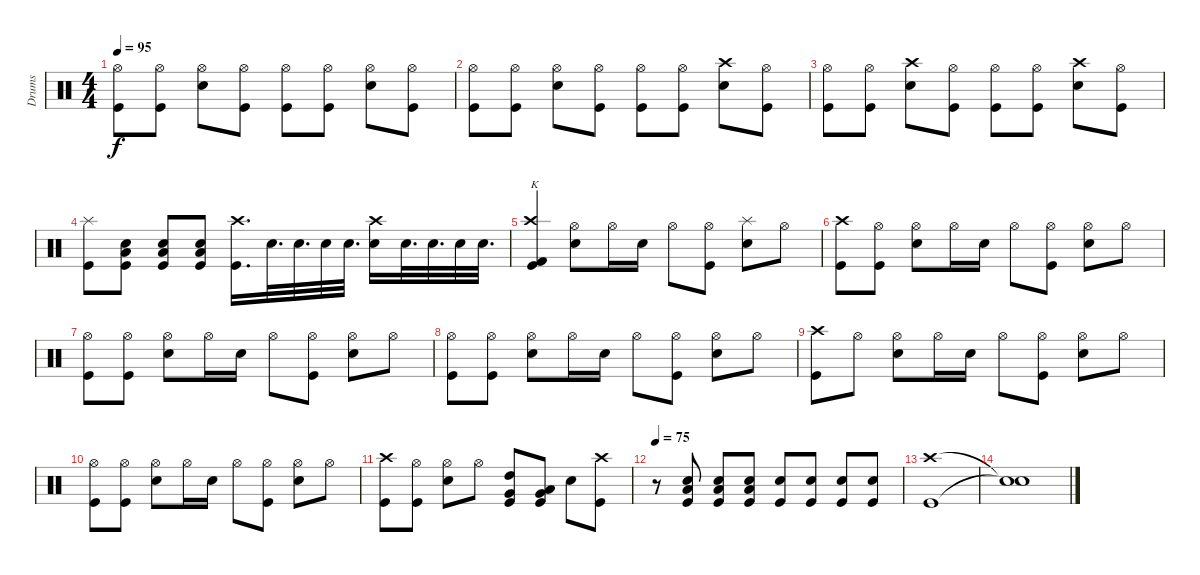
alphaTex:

\track ("Drums" "Drums") {instrument percussion}
\staff {score}
\articulation defaults
\ts (4 4)
\tempo 95
\clef neutral
\ks c
("Hi-Hat (open)" "Kick (hit)").8{dy f} ("Hi-Hat (open)" "Kick (hit)").8 ("Hi-Hat (open)" "Electric Snare (hit)").8 ("Hi-Hat (open)" "Kick (hit)").8 ("Hi-Hat (open)" "Kick (hit)").8 ("Hi-Hat (open)" "Kick (hit)").8 ("Hi-Hat (open)" "Electric Snare (hit)").8 ("Hi-Hat (open)" "Kick (hit)").8 |
("Hi-Hat (open)" "Kick (hit)").8 ("Hi-Hat (open)" "Kick (hit)").8 ("Hi-Hat (open)" "Electric Snare (hit)").8 ("Hi-Hat (open)" "Kick (hit)").8 ("Hi-Hat (open)" "Kick (hit)").8 ("Hi-Hat (open)" "Kick (hit)").8 ("Crash high (hit)" "Electric Snare (hit)").8 ("Hi-Hat (open)" "Kick (hit)").8 |
("Hi-Hat (open)" "Kick (hit)").8 ("Hi-Hat (open)" "Kick (hit)").8 ("Crash high (hit)" "Electric Snare (hit)").8 ("Hi-Hat (open)" "Kick (hit)").8 ("Hi-Hat (open)" "Kick (hit)").8 ("Hi-Hat (open)" "Kick (hit)").8 ("Crash high (hit)" "Electric Snare (hit)").8 ("Hi-Hat (open)" "Kick (hit)").8 |
("Splash (hit)" "Kick (hit)").8 ("Low Floor Tom (hit)" "Electric Snare (hit)" "Kick (hit)").8 ("Low Floor Tom (hit)" "Electric Snare (hit)" "Kick (hit)").8 ("Low Floor Tom (hit)" "Electric Snare (hit)" "Kick (hit)").8 ("Crash high (hit)" "Kick (hit)").16{d} "Electric Snare (hit)".32{d} "Electric Snare (hit)".32{d} "Electric Snare (hit)".32 "Electric Snare (hit)".32{d} ("Crash high (hit)" "Electric Snare (hit)").16 "Electric Snare (hit)".32{d} "Electric Snare (hit)".32{d} "Electric Snare (hit)".32 "Electric Snare (hit)".32{d} |
("Crash high (hit)" "Kick (hit) 2" "Kick (hit)").4{txt "K"} ("Hi-Hat (open)" "Electric Snare (hit)").8 "Hi-Hat (open)".16 "Electric Snare (hit)".16 "Hi-Hat (open)".8 ("Hi-Hat (open)" "Kick (hit)").8 ("Splash (hit)" "Electric Snare (hit)").8 "Hi-Hat (open)".8 |
("Crash high (hit)" "Kick (hit)").8 ("Hi-Hat (open)" "Kick (hit)").8 ("Hi-Hat (open)" "Electric Snare (hit)").8 "Hi-Hat (open)".16 "Electric Snare (hit)".16 "Hi-Hat (open)".8 ("Hi-Hat (open)" "Kick (hit)").8 ("Hi-Hat (open)" "Electric Snare (hit)").8 "Hi-Hat (open)".8 |
("Hi-Hat (open)" "Kick (hit)").8 ("Hi-Hat (open)" "Kick (hit)").8 ("Hi-Hat (open)" "Electric Snare (hit)").8 "Hi-Hat (open)".16 "Electric Snare (hit)".16 "Hi-Hat (open)".8 ("Hi-Hat (open)" "Kick (hit)").8 ("Hi-Hat (open)" "Electric Snare (hit)").8 "Hi-Hat (open)".8 |
("Hi-Hat (open)" "Kick (hit)").8 ("Hi-Hat (open)" "Kick (hit)").8 ("Hi-Hat (open)" "Electric Snare (hit)").8 "Hi-Hat (open)".16 "Electric Snare (hit)".16 "Hi-Hat (open)".8 ("Hi-Hat (open)" "Kick (hit)").8 ("Hi-Hat (open)" "Electric Snare (hit)").8 "Hi-Hat (open)".8 |
("Crash high (hit)" "Kick (hit)").8 "Hi-Hat (open)".8 ("Hi-Hat (open)" "Electric Snare (hit)").8 "Hi-Hat (open)".16 "Electric Snare (hit)".16 "Hi-Hat (open)".8 ("Hi-Hat (open)" "Kick (hit)").8 ("Hi-Hat (open)" "Electric Snare (hit)").8 "Hi-Hat (open)".8 |
("Hi-Hat (open)" "Kick (hit)").8 ("Hi-Hat (open)" "Kick (hit)").8 ("Hi-Hat (open)" "Electric Snare (hit)").8 "Hi-Hat (open)".16 "Electric Snare (hit)".16 "Hi-Hat (open)".8 ("Hi-Hat (open)" "Kick (hit)").8 ("Hi-Hat (open)" "Electric Snare (hit)").8 "Hi-Hat (open)".8 |
("Crash high (hit)" "Kick (hit)").8 ("Hi-Hat (open)" "Kick (hit)").8 ("Hi-Hat (open)" "Electric Snare (hit)").8 "Hi-Hat (open)".8 ("High Tom (hit)" "Very Low Tom (hit)" "Kick (hit)").8 ("Low Floor Tom (hit)" "Very Low Tom (hit)" "Kick (hit)").8 "Electric Snare (hit)".8 ("Crash high (hit)" "Kick (hit)").8 |
\tempo 75
r.8 ("Low Floor Tom (hit)" "Electric Snare (hit)" "Kick (hit)").8 ("Low Floor Tom (hit)" "Electric Snare (hit)" "Kick (hit)").8 ("Low Floor Tom (hit)" "Electric Snare (hit)" "Kick (hit)").8 ("Electric Snare (hit)" "Kick (hit)").8 ("Electric Snare (hit)" "Kick (hit)").8 ("Electric Snare (hit)" "Kick (hit)").8 ("Electric Snare (hit)" "Kick (hit)").8 |
("Crash high (hit)" "Kick (hit)").1 |
("Snare (hit)"{t} "Snare (hit)"{t}).1
